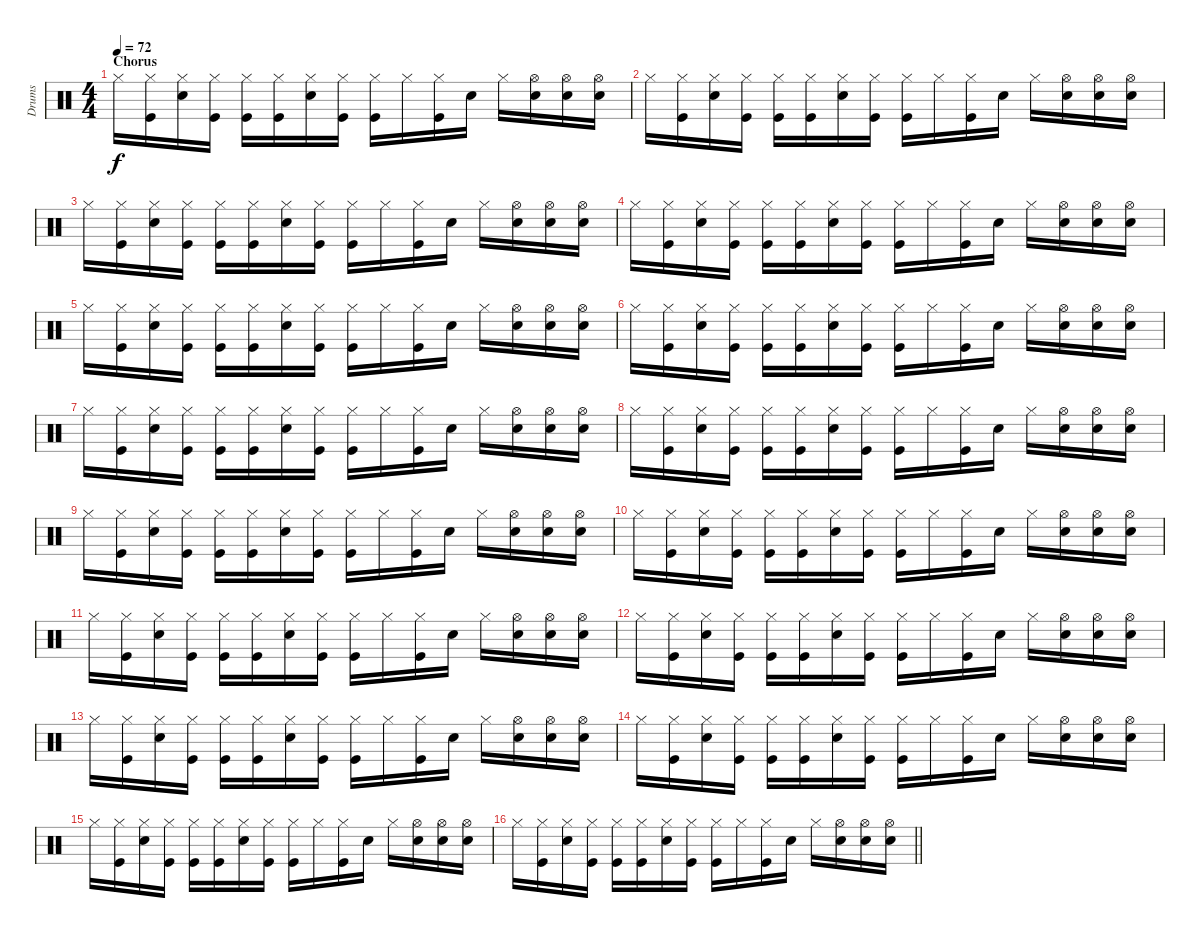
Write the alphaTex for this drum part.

\track ("Drums" "Drums") {instrument percussion}
\staff {score}
\articulation defaults
\ts (4 4)
\section ("" "Chorus")
\tempo 72
\clef neutral
\ks c "Hi-Hat (closed)".16{dy f}
("Hi-Hat (closed)" "Kick (hit)").16 ("Hi-Hat (closed)" "Snare (hit) 2").16 ("Hi-Hat (closed)" "Kick (hit)").16 ("Hi-Hat (closed)" "Kick (hit)").16 ("Hi-Hat (closed)" "Kick (hit)").16 ("Hi-Hat (closed)" "Snare (hit) 2").16 ("Hi-Hat (closed)" "Kick (hit)").16 ("Hi-Hat (closed)" "Kick (hit)").16 "Hi-Hat (closed)".16 ("Hi-Hat (closed)" "Kick (hit)").16 "Snare (hit) 2".16 "Hi-Hat (closed)".16 ("Hi-Hat (open)" "Snare (hit) 2").16 ("Hi-Hat (open)" "Snare (hit) 2").16 ("Hi-Hat (open)" "Snare (hit) 2").16 |
"Hi-Hat (closed)".16 ("Hi-Hat (closed)" "Kick (hit)").16 ("Hi-Hat (closed)" "Snare (hit) 2").16 ("Hi-Hat (closed)" "Kick (hit)").16 ("Hi-Hat (closed)" "Kick (hit)").16 ("Hi-Hat (closed)" "Kick (hit)").16 ("Hi-Hat (closed)" "Snare (hit) 2").16 ("Hi-Hat (closed)" "Kick (hit)").16 ("Hi-Hat (closed)" "Kick (hit)").16 "Hi-Hat (closed)".16 ("Hi-Hat (closed)" "Kick (hit)").16 "Snare (hit) 2".16 "Hi-Hat (closed)".16 ("Hi-Hat (open)" "Snare (hit) 2").16 ("Hi-Hat (open)" "Snare (hit) 2").16 ("Hi-Hat (open)" "Snare (hit) 2").16 |
"Hi-Hat (closed)".16 ("Hi-Hat (closed)" "Kick (hit)").16 ("Hi-Hat (closed)" "Snare (hit) 2").16 ("Hi-Hat (closed)" "Kick (hit)").16 ("Hi-Hat (closed)" "Kick (hit)").16 ("Hi-Hat (closed)" "Kick (hit)").16 ("Hi-Hat (closed)" "Snare (hit) 2").16 ("Hi-Hat (closed)" "Kick (hit)").16 ("Hi-Hat (closed)" "Kick (hit)").16 "Hi-Hat (closed)".16 ("Hi-Hat (closed)" "Kick (hit)").16 "Snare (hit) 2".16 "Hi-Hat (closed)".16 ("Hi-Hat (open)" "Snare (hit) 2").16 ("Hi-Hat (open)" "Snare (hit) 2").16 ("Hi-Hat (open)" "Snare (hit) 2").16 |
"Hi-Hat (closed)".16 ("Hi-Hat (closed)" "Kick (hit)").16 ("Hi-Hat (closed)" "Snare (hit) 2").16 ("Hi-Hat (closed)" "Kick (hit)").16 ("Hi-Hat (closed)" "Kick (hit)").16 ("Hi-Hat (closed)" "Kick (hit)").16 ("Hi-Hat (closed)" "Snare (hit) 2").16 ("Hi-Hat (closed)" "Kick (hit)").16 ("Hi-Hat (closed)" "Kick (hit)").16 "Hi-Hat (closed)".16 ("Hi-Hat (closed)" "Kick (hit)").16 "Snare (hit) 2".16 "Hi-Hat (closed)".16 ("Hi-Hat (open)" "Snare (hit) 2").16 ("Hi-Hat (open)" "Snare (hit) 2").16 ("Hi-Hat (open)" "Snare (hit) 2").16 |
"Hi-Hat (closed)".16 ("Hi-Hat (closed)" "Kick (hit)").16 ("Hi-Hat (closed)" "Snare (hit) 2").16 ("Hi-Hat (closed)" "Kick (hit)").16 ("Hi-Hat (closed)" "Kick (hit)").16 ("Hi-Hat (closed)" "Kick (hit)").16 ("Hi-Hat (closed)" "Snare (hit) 2").16 ("Hi-Hat (closed)" "Kick (hit)").16 ("Hi-Hat (closed)" "Kick (hit)").16 "Hi-Hat (closed)".16 ("Hi-Hat (closed)" "Kick (hit)").16 "Snare (hit) 2".16 "Hi-Hat (closed)".16 ("Hi-Hat (open)" "Snare (hit) 2").16 ("Hi-Hat (open)" "Snare (hit) 2").16 ("Hi-Hat (open)" "Snare (hit) 2").16 |
"Hi-Hat (closed)".16 ("Hi-Hat (closed)" "Kick (hit)").16 ("Hi-Hat (closed)" "Snare (hit) 2").16 ("Hi-Hat (closed)" "Kick (hit)").16 ("Hi-Hat (closed)" "Kick (hit)").16 ("Hi-Hat (closed)" "Kick (hit)").16 ("Hi-Hat (closed)" "Snare (hit) 2").16 ("Hi-Hat (closed)" "Kick (hit)").16 ("Hi-Hat (closed)" "Kick (hit)").16 "Hi-Hat (closed)".16 ("Hi-Hat (closed)" "Kick (hit)").16 "Snare (hit) 2".16 "Hi-Hat (closed)".16 ("Hi-Hat (open)" "Snare (hit) 2").16 ("Hi-Hat (open)" "Snare (hit) 2").16 ("Hi-Hat (open)" "Snare (hit) 2").16 |
"Hi-Hat (closed)".16 ("Hi-Hat (closed)" "Kick (hit)").16 ("Hi-Hat (closed)" "Snare (hit) 2").16 ("Hi-Hat (closed)" "Kick (hit)").16 ("Hi-Hat (closed)" "Kick (hit)").16 ("Hi-Hat (closed)" "Kick (hit)").16 ("Hi-Hat (closed)" "Snare (hit) 2").16 ("Hi-Hat (closed)" "Kick (hit)").16 ("Hi-Hat (closed)" "Kick (hit)").16 "Hi-Hat (closed)".16 ("Hi-Hat (closed)" "Kick (hit)").16 "Snare (hit) 2".16 "Hi-Hat (closed)".16 ("Hi-Hat (open)" "Snare (hit) 2").16 ("Hi-Hat (open)" "Snare (hit) 2").16 ("Hi-Hat (open)" "Snare (hit) 2").16 |
"Hi-Hat (closed)".16 ("Hi-Hat (closed)" "Kick (hit)").16 ("Hi-Hat (closed)" "Snare (hit) 2").16 ("Hi-Hat (closed)" "Kick (hit)").16 ("Hi-Hat (closed)" "Kick (hit)").16 ("Hi-Hat (closed)" "Kick (hit)").16 ("Hi-Hat (closed)" "Snare (hit) 2").16 ("Hi-Hat (closed)" "Kick (hit)").16 ("Hi-Hat (closed)" "Kick (hit)").16 "Hi-Hat (closed)".16 ("Hi-Hat (closed)" "Kick (hit)").16 "Snare (hit) 2".16 "Hi-Hat (closed)".16 ("Hi-Hat (open)" "Snare (hit) 2").16 ("Hi-Hat (open)" "Snare (hit) 2").16 ("Hi-Hat (open)" "Snare (hit) 2").16 |
"Hi-Hat (closed)".16 ("Hi-Hat (closed)" "Kick (hit)").16 ("Hi-Hat (closed)" "Snare (hit) 2").16 ("Hi-Hat (closed)" "Kick (hit)").16 ("Hi-Hat (closed)" "Kick (hit)").16 ("Hi-Hat (closed)" "Kick (hit)").16 ("Hi-Hat (closed)" "Snare (hit) 2").16 ("Hi-Hat (closed)" "Kick (hit)").16 ("Hi-Hat (closed)" "Kick (hit)").16 "Hi-Hat (closed)".16 ("Hi-Hat (closed)" "Kick (hit)").16 "Snare (hit) 2".16 "Hi-Hat (closed)".16 ("Hi-Hat (open)" "Snare (hit) 2").16 ("Hi-Hat (open)" "Snare (hit) 2").16 ("Hi-Hat (open)" "Snare (hit) 2").16 |
"Hi-Hat (closed)".16 ("Hi-Hat (closed)" "Kick (hit)").16 ("Hi-Hat (closed)" "Snare (hit) 2").16 ("Hi-Hat (closed)" "Kick (hit)").16 ("Hi-Hat (closed)" "Kick (hit)").16 ("Hi-Hat (closed)" "Kick (hit)").16 ("Hi-Hat (closed)" "Snare (hit) 2").16 ("Hi-Hat (closed)" "Kick (hit)").16 ("Hi-Hat (closed)" "Kick (hit)").16 "Hi-Hat (closed)".16 ("Hi-Hat (closed)" "Kick (hit)").16 "Snare (hit) 2".16 "Hi-Hat (closed)".16 ("Hi-Hat (open)" "Snare (hit) 2").16 ("Hi-Hat (open)" "Snare (hit) 2").16 ("Hi-Hat (open)" "Snare (hit) 2").16 |
"Hi-Hat (closed)".16 ("Hi-Hat (closed)" "Kick (hit)").16 ("Hi-Hat (closed)" "Snare (hit) 2").16 ("Hi-Hat (closed)" "Kick (hit)").16 ("Hi-Hat (closed)" "Kick (hit)").16 ("Hi-Hat (closed)" "Kick (hit)").16 ("Hi-Hat (closed)" "Snare (hit) 2").16 ("Hi-Hat (closed)" "Kick (hit)").16 ("Hi-Hat (closed)" "Kick (hit)").16 "Hi-Hat (closed)".16 ("Hi-Hat (closed)" "Kick (hit)").16 "Snare (hit) 2".16 "Hi-Hat (closed)".16 ("Hi-Hat (open)" "Snare (hit) 2").16 ("Hi-Hat (open)" "Snare (hit) 2").16 ("Hi-Hat (open)" "Snare (hit) 2").16 |
"Hi-Hat (closed)".16 ("Hi-Hat (closed)" "Kick (hit)").16 ("Hi-Hat (closed)" "Snare (hit) 2").16 ("Hi-Hat (closed)" "Kick (hit)").16 ("Hi-Hat (closed)" "Kick (hit)").16 ("Hi-Hat (closed)" "Kick (hit)").16 ("Hi-Hat (closed)" "Snare (hit) 2").16 ("Hi-Hat (closed)" "Kick (hit)").16 ("Hi-Hat (closed)" "Kick (hit)").16 "Hi-Hat (closed)".16 ("Hi-Hat (closed)" "Kick (hit)").16 "Snare (hit) 2".16 "Hi-Hat (closed)".16 ("Hi-Hat (open)" "Snare (hit) 2").16 ("Hi-Hat (open)" "Snare (hit) 2").16 ("Hi-Hat (open)" "Snare (hit) 2").16 |
"Hi-Hat (closed)".16 ("Hi-Hat (closed)" "Kick (hit)").16 ("Hi-Hat (closed)" "Snare (hit) 2").16 ("Hi-Hat (closed)" "Kick (hit)").16 ("Hi-Hat (closed)" "Kick (hit)").16 ("Hi-Hat (closed)" "Kick (hit)").16 ("Hi-Hat (closed)" "Snare (hit) 2").16 ("Hi-Hat (closed)" "Kick (hit)").16 ("Hi-Hat (closed)" "Kick (hit)").16 "Hi-Hat (closed)".16 ("Hi-Hat (closed)" "Kick (hit)").16 "Snare (hit) 2".16 "Hi-Hat (closed)".16 ("Hi-Hat (open)" "Snare (hit) 2").16 ("Hi-Hat (open)" "Snare (hit) 2").16 ("Hi-Hat (open)" "Snare (hit) 2").16 |
"Hi-Hat (closed)".16 ("Hi-Hat (closed)" "Kick (hit)").16 ("Hi-Hat (closed)" "Snare (hit) 2").16 ("Hi-Hat (closed)" "Kick (hit)").16 ("Hi-Hat (closed)" "Kick (hit)").16 ("Hi-Hat (closed)" "Kick (hit)").16 ("Hi-Hat (closed)" "Snare (hit) 2").16 ("Hi-Hat (closed)" "Kick (hit)").16 ("Hi-Hat (closed)" "Kick (hit)").16 "Hi-Hat (closed)".16 ("Hi-Hat (closed)" "Kick (hit)").16 "Snare (hit) 2".16 "Hi-Hat (closed)".16 ("Hi-Hat (open)" "Snare (hit) 2").16 ("Hi-Hat (open)" "Snare (hit) 2").16 ("Hi-Hat (open)" "Snare (hit) 2").16 |
"Hi-Hat (closed)".16 ("Hi-Hat (closed)" "Kick (hit)").16 ("Hi-Hat (closed)" "Snare (hit) 2").16 ("Hi-Hat (closed)" "Kick (hit)").16 ("Hi-Hat (closed)" "Kick (hit)").16 ("Hi-Hat (closed)" "Kick (hit)").16 ("Hi-Hat (closed)" "Snare (hit) 2").16 ("Hi-Hat (closed)" "Kick (hit)").16 ("Hi-Hat (closed)" "Kick (hit)").16 "Hi-Hat (closed)".16 ("Hi-Hat (closed)" "Kick (hit)").16 "Snare (hit) 2".16 "Hi-Hat (closed)".16 ("Hi-Hat (open)" "Snare (hit) 2").16 ("Hi-Hat (open)" "Snare (hit) 2").16 ("Hi-Hat (open)" "Snare (hit) 2").16 |
\barLineRight lightlight "Hi-Hat (closed)".16
("Hi-Hat (closed)" "Kick (hit)").16 ("Hi-Hat (closed)" "Snare (hit) 2").16 ("Hi-Hat (closed)" "Kick (hit)").16 ("Hi-Hat (closed)" "Kick (hit)").16 ("Hi-Hat (closed)" "Kick (hit)").16 ("Hi-Hat (closed)" "Snare (hit) 2").16 ("Hi-Hat (closed)" "Kick (hit)").16 ("Hi-Hat (closed)" "Kick (hit)").16 "Hi-Hat (closed)".16 ("Hi-Hat (closed)" "Kick (hit)").16 "Snare (hit) 2".16 "Hi-Hat (closed)".16 ("Hi-Hat (open)" "Snare (hit) 2").16 ("Hi-Hat (open)" "Snare (hit) 2").16 ("Hi-Hat (open)" "Snare (hit) 2").16
